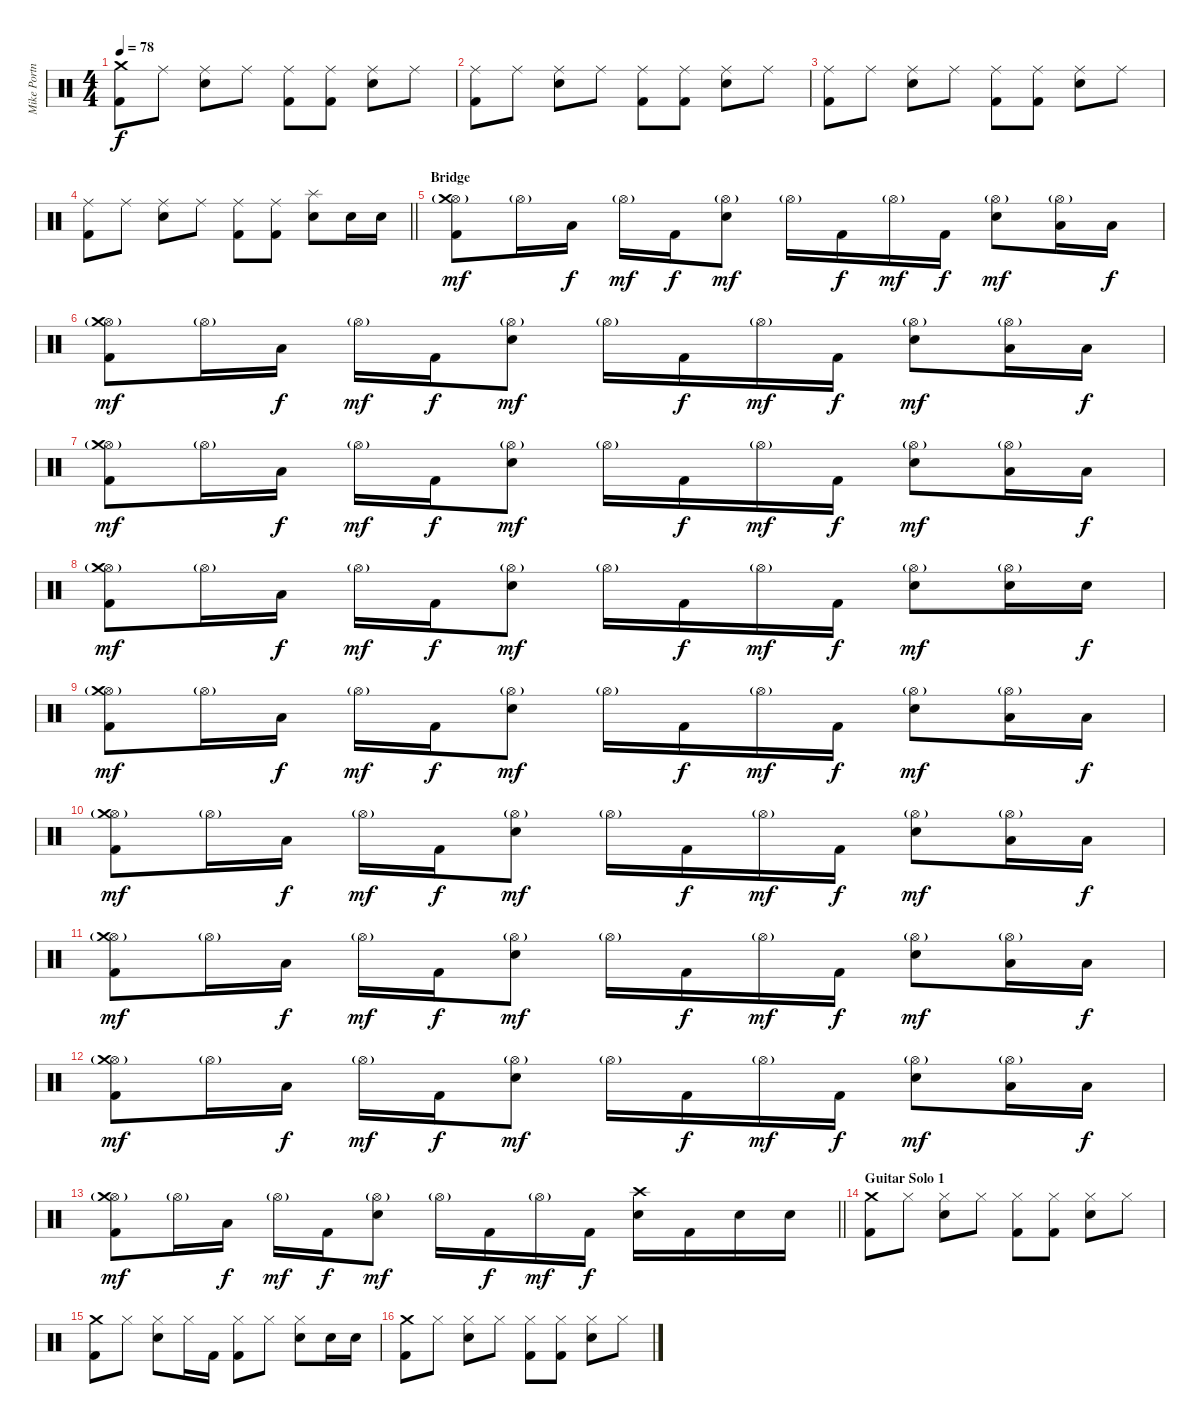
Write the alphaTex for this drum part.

\track ("Mike Portnoy" "Mike Portn") {instrument percussion}
\staff {score}
\articulation defaults
\ts (4 4)
\tempo 78
\clef neutral
\ks c
("Crash medium (hit)" "Kick (hit) 2").8{dy f} "Ride (middle)".8 ("Ride (middle)" "Electric Snare (hit)").8 "Ride (middle)".8 ("Ride (middle)" "Kick (hit) 2").8 ("Ride (middle)" "Kick (hit) 2").8 ("Ride (middle)" "Electric Snare (hit)").8 "Ride (middle)".8 |
("Ride (middle)" "Kick (hit) 2").8 "Ride (middle)".8 ("Ride (middle)" "Electric Snare (hit)").8 "Ride (middle)".8 ("Ride (middle)" "Kick (hit) 2").8 ("Ride (middle)" "Kick (hit) 2").8 ("Ride (middle)" "Electric Snare (hit)").8 "Ride (middle)".8 |
("Ride (middle)" "Kick (hit) 2").8 "Ride (middle)".8 ("Ride (middle)" "Electric Snare (hit)").8 "Ride (middle)".8 ("Ride (middle)" "Kick (hit) 2").8 ("Ride (middle)" "Kick (hit) 2").8 ("Ride (middle)" "Electric Snare (hit)").8 "Ride (middle)".8 |
\barLineRight lightlight
("Ride (middle)" "Kick (hit) 2").8 "Ride (middle)".8 ("Ride (middle)" "Electric Snare (hit)").8 "Ride (middle)".8 ("Ride (middle)" "Kick (hit) 2").8 ("Ride (middle)" "Kick (hit) 2").8 ("Splash (hit)" "Electric Snare (hit)").8 "Electric Snare (hit)".16 "Electric Snare (hit)".16 |
\section ("" "Bridge")
("Hi-Hat (open)"{g} "Crash medium (hit)" "Kick (hit) 2").8{dy mf} "Hi-Hat (open)"{g}.16 "Low Tom (hit)".16{dy f} "Hi-Hat (open)"{g}.16{dy mf} "Kick (hit) 2".16{dy f} ("Hi-Hat (open)"{g} "Electric Snare (hit)").8{dy mf} "Hi-Hat (open)"{g}.16 "Kick (hit) 2".16{dy f} "Hi-Hat (open)"{g}.16{dy mf} "Kick (hit) 2".16{dy f} ("Hi-Hat (open)"{g} "Electric Snare (hit)").8{dy mf} ("Hi-Hat (open)"{g} "Low Tom (hit)").16 "Low Tom (hit)".16{dy f} |
("Hi-Hat (open)"{g} "Crash medium (hit)" "Kick (hit) 2").8{dy mf} "Hi-Hat (open)"{g}.16 "Low Tom (hit)".16{dy f} "Hi-Hat (open)"{g}.16{dy mf} "Kick (hit) 2".16{dy f} ("Hi-Hat (open)"{g} "Electric Snare (hit)").8{dy mf} "Hi-Hat (open)"{g}.16 "Kick (hit) 2".16{dy f} "Hi-Hat (open)"{g}.16{dy mf} "Kick (hit) 2".16{dy f} ("Hi-Hat (open)"{g} "Electric Snare (hit)").8{dy mf} ("Hi-Hat (open)"{g} "Low Tom (hit)").16 "Low Tom (hit)".16{dy f} |
("Hi-Hat (open)"{g} "Crash medium (hit)" "Kick (hit) 2").8{dy mf} "Hi-Hat (open)"{g}.16 "Low Tom (hit)".16{dy f} "Hi-Hat (open)"{g}.16{dy mf} "Kick (hit) 2".16{dy f} ("Hi-Hat (open)"{g} "Electric Snare (hit)").8{dy mf} "Hi-Hat (open)"{g}.16 "Kick (hit) 2".16{dy f} "Hi-Hat (open)"{g}.16{dy mf} "Kick (hit) 2".16{dy f} ("Hi-Hat (open)"{g} "Electric Snare (hit)").8{dy mf} ("Hi-Hat (open)"{g} "Low Tom (hit)").16 "Low Tom (hit)".16{dy f} |
("Hi-Hat (open)"{g} "Crash medium (hit)" "Kick (hit) 2").8{dy mf} "Hi-Hat (open)"{g}.16 "Low Tom (hit)".16{dy f} "Hi-Hat (open)"{g}.16{dy mf} "Kick (hit) 2".16{dy f} ("Hi-Hat (open)"{g} "Electric Snare (hit)").8{dy mf} "Hi-Hat (open)"{g}.16 "Kick (hit) 2".16{dy f} "Hi-Hat (open)"{g}.16{dy mf} "Kick (hit) 2".16{dy f} ("Hi-Hat (open)"{g} "Electric Snare (hit)").8{dy mf} ("Hi-Hat (open)"{g} "Electric Snare (hit)").16 "Electric Snare (hit)".16{dy f} |
("Hi-Hat (open)"{g} "Crash medium (hit)" "Kick (hit) 2").8{dy mf} "Hi-Hat (open)"{g}.16 "Low Tom (hit)".16{dy f} "Hi-Hat (open)"{g}.16{dy mf} "Kick (hit) 2".16{dy f} ("Hi-Hat (open)"{g} "Electric Snare (hit)").8{dy mf} "Hi-Hat (open)"{g}.16 "Kick (hit) 2".16{dy f} "Hi-Hat (open)"{g}.16{dy mf} "Kick (hit) 2".16{dy f} ("Hi-Hat (open)"{g} "Electric Snare (hit)").8{dy mf} ("Hi-Hat (open)"{g} "Low Tom (hit)").16 "Low Tom (hit)".16{dy f} |
("Hi-Hat (open)"{g} "Crash medium (hit)" "Kick (hit) 2").8{dy mf} "Hi-Hat (open)"{g}.16 "Low Tom (hit)".16{dy f} "Hi-Hat (open)"{g}.16{dy mf} "Kick (hit) 2".16{dy f} ("Hi-Hat (open)"{g} "Electric Snare (hit)").8{dy mf} "Hi-Hat (open)"{g}.16 "Kick (hit) 2".16{dy f} "Hi-Hat (open)"{g}.16{dy mf} "Kick (hit) 2".16{dy f} ("Hi-Hat (open)"{g} "Electric Snare (hit)").8{dy mf} ("Hi-Hat (open)"{g} "Low Tom (hit)").16 "Low Tom (hit)".16{dy f} |
("Hi-Hat (open)"{g} "Crash medium (hit)" "Kick (hit) 2").8{dy mf} "Hi-Hat (open)"{g}.16 "Low Tom (hit)".16{dy f} "Hi-Hat (open)"{g}.16{dy mf} "Kick (hit) 2".16{dy f} ("Hi-Hat (open)"{g} "Electric Snare (hit)").8{dy mf} "Hi-Hat (open)"{g}.16 "Kick (hit) 2".16{dy f} "Hi-Hat (open)"{g}.16{dy mf} "Kick (hit) 2".16{dy f} ("Hi-Hat (open)"{g} "Electric Snare (hit)").8{dy mf} ("Hi-Hat (open)"{g} "Low Tom (hit)").16 "Low Tom (hit)".16{dy f} |
("Hi-Hat (open)"{g} "Crash medium (hit)" "Kick (hit) 2").8{dy mf} "Hi-Hat (open)"{g}.16 "Low Tom (hit)".16{dy f} "Hi-Hat (open)"{g}.16{dy mf} "Kick (hit) 2".16{dy f} ("Hi-Hat (open)"{g} "Electric Snare (hit)").8{dy mf} "Hi-Hat (open)"{g}.16 "Kick (hit) 2".16{dy f} "Hi-Hat (open)"{g}.16{dy mf} "Kick (hit) 2".16{dy f} ("Hi-Hat (open)"{g} "Electric Snare (hit)").8{dy mf} ("Hi-Hat (open)"{g} "Low Tom (hit)").16 "Low Tom (hit)".16{dy f} |
\barLineRight lightlight
("Hi-Hat (open)"{g} "Crash medium (hit)" "Kick (hit) 2").8{dy mf} "Hi-Hat (open)"{g}.16 "Low Tom (hit)".16{dy f} "Hi-Hat (open)"{g}.16{dy mf} "Kick (hit) 2".16{dy f} ("Hi-Hat (open)"{g} "Electric Snare (hit)").8{dy mf} "Hi-Hat (open)"{g}.16 "Kick (hit) 2".16{dy f} "Hi-Hat (open)"{g}.16{dy mf} "Kick (hit) 2".16{dy f} ("Crash high (hit)" "Electric Snare (hit)").16 "Kick (hit) 2".16 "Electric Snare (hit)".16 "Electric Snare (hit)".16 |
\section ("" "Guitar Solo 1")
("Crash medium (hit)" "Kick (hit) 2").8 "Hi-Hat (closed)".8 ("Hi-Hat (closed)" "Electric Snare (hit)").8 "Hi-Hat (closed)".8 ("Hi-Hat (closed)" "Kick (hit) 2").8 ("Hi-Hat (closed)" "Kick (hit) 2").8 ("Hi-Hat (closed)" "Electric Snare (hit)").8 "Hi-Hat (closed)".8 |
("Crash medium (hit)" "Kick (hit) 2").8 "Hi-Hat (closed)".8 ("Hi-Hat (closed)" "Electric Snare (hit)").8 "Hi-Hat (closed)".16 "Kick (hit) 2".16 ("Hi-Hat (closed)" "Kick (hit) 2").8 "Hi-Hat (closed)".8 ("Hi-Hat (closed)" "Electric Snare (hit)").8 "Electric Snare (hit)".16 "Electric Snare (hit)".16 |
("Crash medium (hit)" "Kick (hit) 2").8 "Hi-Hat (closed)".8 ("Hi-Hat (closed)" "Electric Snare (hit)").8 "Hi-Hat (closed)".8 ("Hi-Hat (closed)" "Kick (hit) 2").8 ("Hi-Hat (closed)" "Kick (hit) 2").8 ("Hi-Hat (closed)" "Electric Snare (hit)").8 "Hi-Hat (closed)".8
